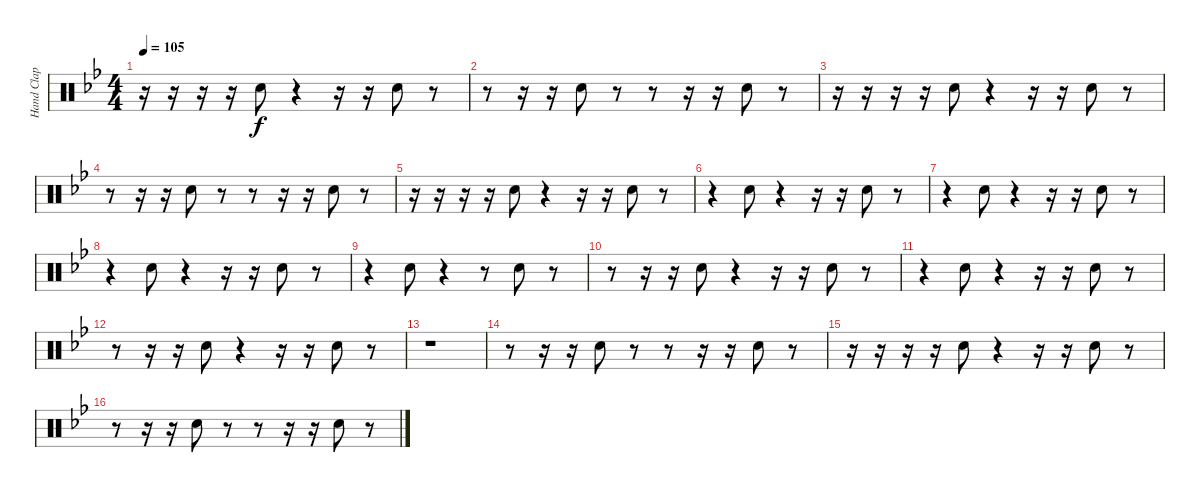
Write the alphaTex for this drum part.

\track ("Hand Clap" "Hand Clap") {instrument percussion}
\staff {score}
\articulation defaults
\ts (4 4)
\tempo 105
\clef neutral
\ks gminor
r.16{dy f} r.16 r.16 r.16 "Hand Clap (hit)".8 r.4 r.16 r.16 "Hand Clap (hit)".8 r.8 |
r.8 r.16 r.16 "Hand Clap (hit)".8 r.8 r.8 r.16 r.16 "Hand Clap (hit)".8 r.8 |
r.16 r.16 r.16 r.16 "Hand Clap (hit)".8 r.4 r.16 r.16 "Hand Clap (hit)".8 r.8 |
r.8 r.16 r.16 "Hand Clap (hit)".8 r.8 r.8 r.16 r.16 "Hand Clap (hit)".8 r.8 |
r.16 r.16 r.16 r.16 "Hand Clap (hit)".8 r.4 r.16 r.16 "Hand Clap (hit)".8 r.8 |
r.4 "Hand Clap (hit)".8 r.4 r.16 r.16 "Hand Clap (hit)".8 r.8 |
r.4 "Hand Clap (hit)".8 r.4 r.16 r.16 "Hand Clap (hit)".8 r.8 |
r.4 "Hand Clap (hit)".8 r.4 r.16 r.16 "Hand Clap (hit)".8 r.8 |
r.4 "Hand Clap (hit)".8 r.4 r.8 "Hand Clap (hit)".8 r.8 |
r.8 r.16 r.16 "Hand Clap (hit)".8 r.4 r.16 r.16 "Hand Clap (hit)".8 r.8 |
r.4 "Hand Clap (hit)".8 r.4 r.16 r.16 "Hand Clap (hit)".8 r.8 |
r.8 r.16 r.16 "Hand Clap (hit)".8 r.4 r.16 r.16 "Hand Clap (hit)".8 r.8 |
r.1 |
r.8 r.16 r.16 "Hand Clap (hit)".8 r.8 r.8 r.16 r.16 "Hand Clap (hit)".8 r.8 |
r.16 r.16 r.16 r.16 "Hand Clap (hit)".8 r.4 r.16 r.16 "Hand Clap (hit)".8 r.8 |
r.8 r.16 r.16 "Hand Clap (hit)".8 r.8 r.8 r.16 r.16 "Hand Clap (hit)".8 r.8
